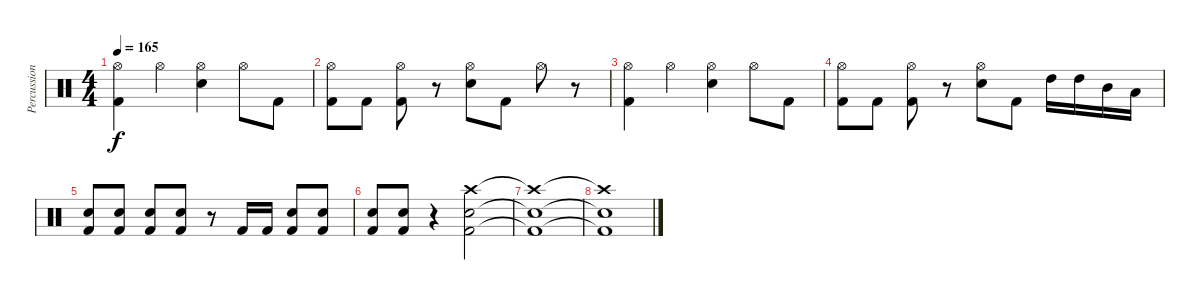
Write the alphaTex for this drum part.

\track ("Percussion" "Percussion") {instrument percussion}
\staff {score}
\articulation defaults
\ts (4 4)
\tempo 165
\clef neutral
\ks c
("Hi-Hat (open)" "Kick (hit) 2").4{dy f} "Hi-Hat (open)".4 ("Hi-Hat (open)" "Electric Snare (hit)").4 "Hi-Hat (open)".8 "Kick (hit) 2".8 |
("Hi-Hat (open)" "Kick (hit) 2").8 "Kick (hit) 2".8 ("Hi-Hat (open)" "Kick (hit) 2").8 r.8 ("Hi-Hat (open)" "Electric Snare (hit)").8 "Kick (hit) 2".8 "Hi-Hat (open)".8 r.8 |
("Hi-Hat (open)" "Kick (hit) 2").4 "Hi-Hat (open)".4 ("Hi-Hat (open)" "Electric Snare (hit)").4 "Hi-Hat (open)".8 "Kick (hit) 2".8 |
("Hi-Hat (open)" "Kick (hit) 2").8 "Kick (hit) 2".8 ("Hi-Hat (open)" "Kick (hit) 2").8 r.8 ("Hi-Hat (open)" "Electric Snare (hit)").8 "Kick (hit) 2".8 "High Tom (hit)".16 "High Tom (hit)".16 "Mid Tom (hit)".16 "Low Tom (hit)".16 |
("Electric Snare (hit)" "Kick (hit) 2").8 ("Electric Snare (hit)" "Kick (hit) 2").8 ("Electric Snare (hit)" "Kick (hit) 2").8 ("Electric Snare (hit)" "Kick (hit) 2").8 r.8 "Kick (hit) 2".16 "Kick (hit) 2".16 ("Electric Snare (hit)" "Kick (hit) 2").8 ("Electric Snare (hit)" "Kick (hit) 2").8 |
("Electric Snare (hit)" "Kick (hit) 2").8 ("Electric Snare (hit)" "Kick (hit) 2").8 r.4 ("Crash high (hit)" "Electric Snare (hit)" "Kick (hit) 2").2 |
("Crash high (hit)"{t} "Electric Snare (hit)"{t} "Kick (hit) 2"{t}).1 |
("Crash high (hit)"{t} "Electric Snare (hit)"{t} "Kick (hit) 2"{t}).1
